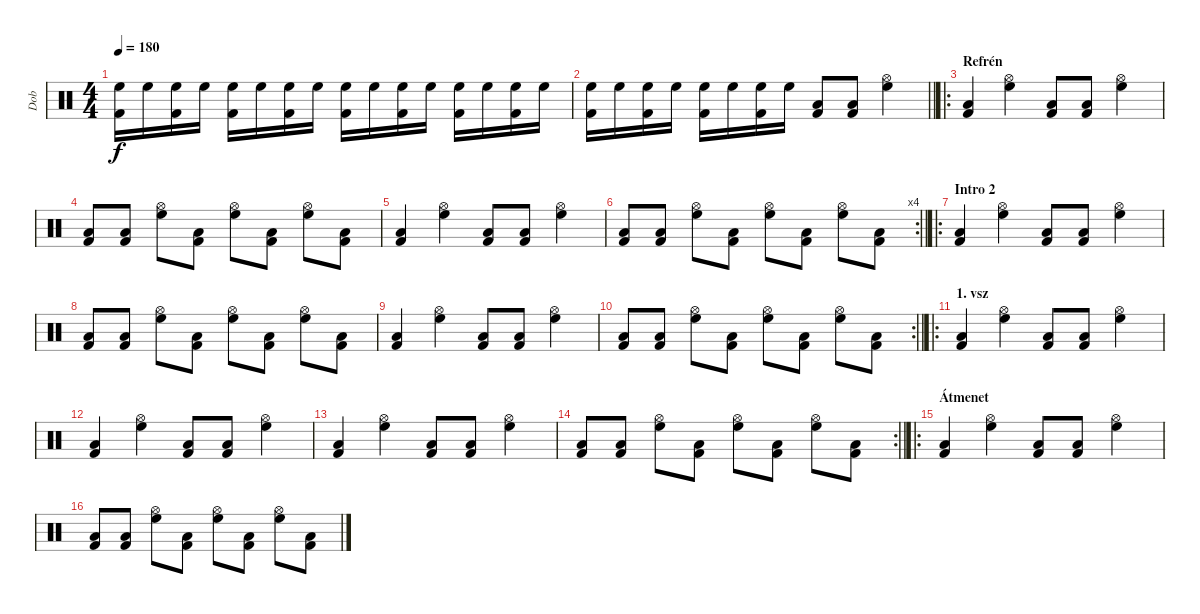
\track ("Dob" "Dob") {instrument percussion}
\staff {score}
\articulation defaults
\ts (4 4)
\tempo 180
\clef neutral
\ks c
("Kick (hit) 2" "High Floor Tom (hit)").16{dy f} "High Floor Tom (hit)".16 ("Kick (hit) 2" "High Floor Tom (hit)").16 "High Floor Tom (hit)".16 ("Kick (hit) 2" "High Floor Tom (hit)").16 "High Floor Tom (hit)".16 ("Kick (hit) 2" "High Floor Tom (hit)").16 "High Floor Tom (hit)".16 ("Kick (hit) 2" "High Floor Tom (hit)").16 "High Floor Tom (hit)".16 ("Kick (hit) 2" "High Floor Tom (hit)").16 "High Floor Tom (hit)".16 ("Kick (hit) 2" "High Floor Tom (hit)").16 "High Floor Tom (hit)".16 ("Kick (hit) 2" "High Floor Tom (hit)").16 "High Floor Tom (hit)".16 |
\barLineRight lightlight
("Kick (hit) 2" "High Floor Tom (hit)").16 "High Floor Tom (hit)".16 ("Kick (hit) 2" "High Floor Tom (hit)").16 "High Floor Tom (hit)".16 ("Kick (hit) 2" "High Floor Tom (hit)").16 "High Floor Tom (hit)".16 ("Kick (hit) 2" "High Floor Tom (hit)").16 "High Floor Tom (hit)".16 ("Low Tom (hit)" "Kick (hit) 2").8 ("Low Tom (hit)" "Kick (hit) 2").8 ("Hi-Hat (open)" "High Floor Tom (hit)").4 |
\ro
\section ("" "Refrén")
("Low Tom (hit)" "Kick (hit) 2").4 ("Hi-Hat (open)" "High Floor Tom (hit)").4 ("Low Tom (hit)" "Kick (hit) 2").8 ("Low Tom (hit)" "Kick (hit) 2").8 ("Hi-Hat (open)" "High Floor Tom (hit)").4 |
("Low Tom (hit)" "Kick (hit) 2").8 ("Low Tom (hit)" "Kick (hit) 2").8 ("Hi-Hat (open)" "High Floor Tom (hit)").8 ("Low Tom (hit)" "Kick (hit) 2").8 ("Hi-Hat (open)" "High Floor Tom (hit)").8 ("Low Tom (hit)" "Kick (hit) 2").8 ("Hi-Hat (open)" "High Floor Tom (hit)").8 ("Low Tom (hit)" "Kick (hit) 2").8 |
("Low Tom (hit)" "Kick (hit) 2").4 ("Hi-Hat (open)" "High Floor Tom (hit)").4 ("Low Tom (hit)" "Kick (hit) 2").8 ("Low Tom (hit)" "Kick (hit) 2").8 ("Hi-Hat (open)" "High Floor Tom (hit)").4 |
\rc 4
\barLineRight lightlight
("Low Tom (hit)" "Kick (hit) 2").8 ("Low Tom (hit)" "Kick (hit) 2").8 ("Hi-Hat (open)" "High Floor Tom (hit)").8 ("Low Tom (hit)" "Kick (hit) 2").8 ("Hi-Hat (open)" "High Floor Tom (hit)").8 ("Low Tom (hit)" "Kick (hit) 2").8 ("Hi-Hat (open)" "High Floor Tom (hit)").8 ("Low Tom (hit)" "Kick (hit) 2").8 |
\ro
\section ("" "Intro 2")
("Low Tom (hit)" "Kick (hit) 2").4 ("Hi-Hat (open)" "High Floor Tom (hit)").4 ("Low Tom (hit)" "Kick (hit) 2").8 ("Low Tom (hit)" "Kick (hit) 2").8 ("Hi-Hat (open)" "High Floor Tom (hit)").4 |
("Low Tom (hit)" "Kick (hit) 2").8 ("Low Tom (hit)" "Kick (hit) 2").8 ("Hi-Hat (open)" "High Floor Tom (hit)").8 ("Low Tom (hit)" "Kick (hit) 2").8 ("Hi-Hat (open)" "High Floor Tom (hit)").8 ("Low Tom (hit)" "Kick (hit) 2").8 ("Hi-Hat (open)" "High Floor Tom (hit)").8 ("Low Tom (hit)" "Kick (hit) 2").8 |
("Low Tom (hit)" "Kick (hit) 2").4 ("Hi-Hat (open)" "High Floor Tom (hit)").4 ("Low Tom (hit)" "Kick (hit) 2").8 ("Low Tom (hit)" "Kick (hit) 2").8 ("Hi-Hat (open)" "High Floor Tom (hit)").4 |
\rc 2
\barLineRight lightlight
("Low Tom (hit)" "Kick (hit) 2").8 ("Low Tom (hit)" "Kick (hit) 2").8 ("Hi-Hat (open)" "High Floor Tom (hit)").8 ("Low Tom (hit)" "Kick (hit) 2").8 ("Hi-Hat (open)" "High Floor Tom (hit)").8 ("Low Tom (hit)" "Kick (hit) 2").8 ("Hi-Hat (open)" "High Floor Tom (hit)").8 ("Low Tom (hit)" "Kick (hit) 2").8 |
\ro
\section ("" "1. vsz")
("Low Tom (hit)" "Kick (hit) 2").4 ("Hi-Hat (open)" "High Floor Tom (hit)").4 ("Low Tom (hit)" "Kick (hit) 2").8 ("Low Tom (hit)" "Kick (hit) 2").8 ("Hi-Hat (open)" "High Floor Tom (hit)").4 |
("Low Tom (hit)" "Kick (hit) 2").4 ("Hi-Hat (open)" "High Floor Tom (hit)").4 ("Low Tom (hit)" "Kick (hit) 2").8 ("Low Tom (hit)" "Kick (hit) 2").8 ("Hi-Hat (open)" "High Floor Tom (hit)").4 |
("Low Tom (hit)" "Kick (hit) 2").4 ("Hi-Hat (open)" "High Floor Tom (hit)").4 ("Low Tom (hit)" "Kick (hit) 2").8 ("Low Tom (hit)" "Kick (hit) 2").8 ("Hi-Hat (open)" "High Floor Tom (hit)").4 |
\rc 2
\barLineRight lightlight
("Low Tom (hit)" "Kick (hit) 2").8 ("Low Tom (hit)" "Kick (hit) 2").8 ("Hi-Hat (open)" "High Floor Tom (hit)").8 ("Low Tom (hit)" "Kick (hit) 2").8 ("Hi-Hat (open)" "High Floor Tom (hit)").8 ("Low Tom (hit)" "Kick (hit) 2").8 ("Hi-Hat (open)" "High Floor Tom (hit)").8 ("Low Tom (hit)" "Kick (hit) 2").8 |
\ro
\section ("" "Átmenet")
("Low Tom (hit)" "Kick (hit) 2").4 ("Hi-Hat (open)" "High Floor Tom (hit)").4 ("Low Tom (hit)" "Kick (hit) 2").8 ("Low Tom (hit)" "Kick (hit) 2").8 ("Hi-Hat (open)" "High Floor Tom (hit)").4 |
("Low Tom (hit)" "Kick (hit) 2").8 ("Low Tom (hit)" "Kick (hit) 2").8 ("Hi-Hat (open)" "High Floor Tom (hit)").8 ("Low Tom (hit)" "Kick (hit) 2").8 ("Hi-Hat (open)" "High Floor Tom (hit)").8 ("Low Tom (hit)" "Kick (hit) 2").8 ("Hi-Hat (open)" "High Floor Tom (hit)").8 ("Low Tom (hit)" "Kick (hit) 2").8
